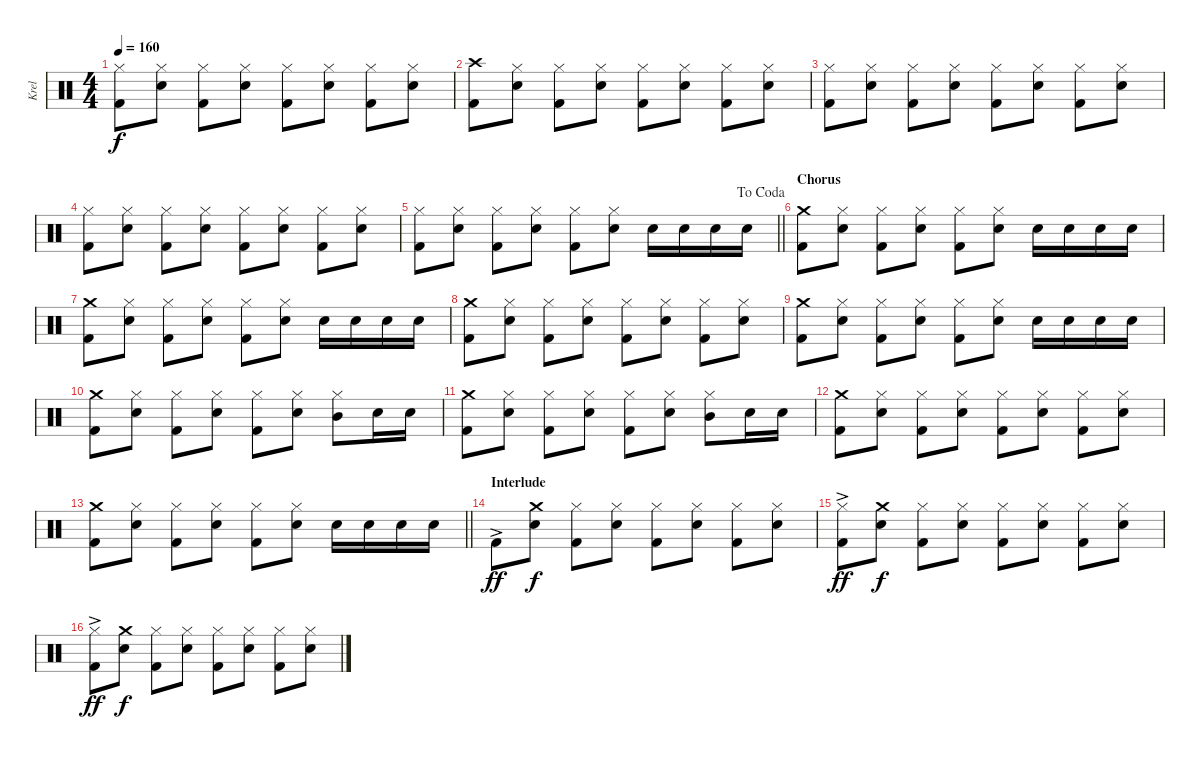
\track ("Krel" "Krel") {instrument percussion}
\staff {score}
\articulation defaults
\ts (4 4)
\tempo 160
\clef neutral
\ks c
("Hi-Hat (closed)" "Kick (hit) 2").8{dy f} ("Hi-Hat (closed)" "Snare (hit) 2").8 ("Hi-Hat (closed)" "Kick (hit) 2").8 ("Hi-Hat (closed)" "Snare (hit) 2").8 ("Hi-Hat (closed)" "Kick (hit) 2").8 ("Hi-Hat (closed)" "Snare (hit) 2").8 ("Hi-Hat (closed)" "Kick (hit) 2").8 ("Hi-Hat (closed)" "Snare (hit) 2").8 |
("Crash high (hit)" "Kick (hit) 2").8 ("Hi-Hat (closed)" "Snare (hit) 2").8 ("Hi-Hat (closed)" "Kick (hit) 2").8 ("Hi-Hat (closed)" "Snare (hit) 2").8 ("Hi-Hat (closed)" "Kick (hit) 2").8 ("Hi-Hat (closed)" "Snare (hit) 2").8 ("Hi-Hat (closed)" "Kick (hit) 2").8 ("Hi-Hat (closed)" "Snare (hit) 2").8 |
("Hi-Hat (closed)" "Kick (hit) 2").8 ("Hi-Hat (closed)" "Snare (hit) 2").8 ("Hi-Hat (closed)" "Kick (hit) 2").8 ("Hi-Hat (closed)" "Snare (hit) 2").8 ("Hi-Hat (closed)" "Kick (hit) 2").8 ("Hi-Hat (closed)" "Snare (hit) 2").8 ("Hi-Hat (closed)" "Kick (hit) 2").8 ("Hi-Hat (closed)" "Snare (hit) 2").8 |
("Hi-Hat (closed)" "Kick (hit) 2").8 ("Hi-Hat (closed)" "Snare (hit) 2").8 ("Hi-Hat (closed)" "Kick (hit) 2").8 ("Hi-Hat (closed)" "Snare (hit) 2").8 ("Hi-Hat (closed)" "Kick (hit) 2").8 ("Hi-Hat (closed)" "Snare (hit) 2").8 ("Hi-Hat (closed)" "Kick (hit) 2").8 ("Hi-Hat (closed)" "Snare (hit) 2").8 |
\jump dacoda
\barLineRight lightlight
("Hi-Hat (closed)" "Kick (hit) 2").8 ("Hi-Hat (closed)" "Snare (hit) 2").8 ("Hi-Hat (closed)" "Kick (hit) 2").8 ("Hi-Hat (closed)" "Snare (hit) 2").8 ("Hi-Hat (closed)" "Kick (hit) 2").8 ("Hi-Hat (closed)" "Snare (hit) 2").8 "Snare (hit) 2".16 "Snare (hit) 2".16 "Snare (hit) 2".16 "Snare (hit) 2".16 |
\section ("" "Chorus")
("Crash medium (hit)" "Kick (hit) 2").8 ("Hi-Hat (closed)" "Snare (hit) 2").8 ("Hi-Hat (closed)" "Kick (hit) 2").8 ("Hi-Hat (closed)" "Snare (hit) 2").8 ("Hi-Hat (closed)" "Kick (hit) 2").8 ("Hi-Hat (closed)" "Snare (hit) 2").8 "Snare (hit) 2".16 "Snare (hit) 2".16 "Snare (hit) 2".16 "Snare (hit) 2".16 |
("Crash medium (hit)" "Kick (hit) 2").8 ("Hi-Hat (closed)" "Snare (hit) 2").8 ("Hi-Hat (closed)" "Kick (hit) 2").8 ("Hi-Hat (closed)" "Snare (hit) 2").8 ("Hi-Hat (closed)" "Kick (hit) 2").8 ("Hi-Hat (closed)" "Snare (hit) 2").8 "Snare (hit) 2".16 "Snare (hit) 2".16 "Snare (hit) 2".16 "Snare (hit) 2".16 |
("Crash medium (hit)" "Kick (hit) 2").8 ("Hi-Hat (closed)" "Snare (hit) 2").8 ("Hi-Hat (closed)" "Kick (hit) 2").8 ("Hi-Hat (closed)" "Snare (hit) 2").8 ("Hi-Hat (closed)" "Kick (hit) 2").8 ("Hi-Hat (closed)" "Snare (hit) 2").8 ("Hi-Hat (closed)" "Kick (hit) 2").8 ("Hi-Hat (closed)" "Snare (hit) 2").8 |
("Crash medium (hit)" "Kick (hit) 2").8 ("Hi-Hat (closed)" "Snare (hit) 2").8 ("Hi-Hat (closed)" "Kick (hit) 2").8 ("Hi-Hat (closed)" "Snare (hit) 2").8 ("Hi-Hat (closed)" "Kick (hit) 2").8 ("Hi-Hat (closed)" "Snare (hit) 2").8 "Snare (hit) 2".16 "Snare (hit) 2".16 "Snare (hit) 2".16 "Snare (hit) 2".16 |
("Crash medium (hit)" "Kick (hit) 2").8 ("Hi-Hat (closed)" "Snare (hit) 2").8 ("Hi-Hat (closed)" "Kick (hit) 2").8 ("Hi-Hat (closed)" "Snare (hit) 2").8 ("Hi-Hat (closed)" "Kick (hit) 2").8 ("Hi-Hat (closed)" "Snare (hit) 2").8 ("Hi-Hat (closed)" "Mid Tom (hit)").8 "Snare (hit) 2".16 "Snare (hit) 2".16 |
("Crash medium (hit)" "Kick (hit) 2").8 ("Hi-Hat (closed)" "Snare (hit) 2").8 ("Hi-Hat (closed)" "Kick (hit) 2").8 ("Hi-Hat (closed)" "Snare (hit) 2").8 ("Hi-Hat (closed)" "Kick (hit) 2").8 ("Hi-Hat (closed)" "Snare (hit) 2").8 ("Hi-Hat (closed)" "Mid Tom (hit)").8 "Snare (hit) 2".16 "Snare (hit) 2".16 |
("Crash medium (hit)" "Kick (hit) 2").8 ("Hi-Hat (closed)" "Snare (hit) 2").8 ("Hi-Hat (closed)" "Kick (hit) 2").8 ("Hi-Hat (closed)" "Snare (hit) 2").8 ("Hi-Hat (closed)" "Kick (hit) 2").8 ("Hi-Hat (closed)" "Snare (hit) 2").8 ("Hi-Hat (closed)" "Kick (hit) 2").8 ("Hi-Hat (closed)" "Snare (hit) 2").8 |
\barLineRight lightlight
("Crash medium (hit)" "Kick (hit) 2").8 ("Hi-Hat (closed)" "Snare (hit) 2").8 ("Hi-Hat (closed)" "Kick (hit) 2").8 ("Hi-Hat (closed)" "Snare (hit) 2").8 ("Hi-Hat (closed)" "Kick (hit) 2").8 ("Hi-Hat (closed)" "Snare (hit) 2").8 "Snare (hit) 2".16 "Snare (hit) 2".16 "Snare (hit) 2".16 "Snare (hit) 2".16 |
\section ("" "Interlude")
"Kick (hit) 2"{ac}.8{dy ff} ("Crash medium (hit)" "Snare (hit) 2").8{dy f} ("Hi-Hat (closed)" "Kick (hit) 2").8 ("Hi-Hat (closed)" "Snare (hit) 2").8 ("Hi-Hat (closed)" "Kick (hit) 2").8 ("Hi-Hat (closed)" "Snare (hit) 2").8 ("Hi-Hat (closed)" "Kick (hit) 2").8 ("Hi-Hat (closed)" "Snare (hit) 2").8 |
("Hi-Hat (closed)" "Kick (hit) 2"{ac}).8{dy ff} ("Crash medium (hit)" "Snare (hit) 2").8{dy f} ("Hi-Hat (closed)" "Kick (hit) 2").8 ("Hi-Hat (closed)" "Snare (hit) 2").8 ("Hi-Hat (closed)" "Kick (hit) 2").8 ("Hi-Hat (closed)" "Snare (hit) 2").8 ("Hi-Hat (closed)" "Kick (hit) 2").8 ("Hi-Hat (closed)" "Snare (hit) 2").8 |
("Hi-Hat (closed)" "Kick (hit) 2"{ac}).8{dy ff} ("Crash medium (hit)" "Snare (hit) 2").8{dy f} ("Hi-Hat (closed)" "Kick (hit) 2").8 ("Hi-Hat (closed)" "Snare (hit) 2").8 ("Hi-Hat (closed)" "Kick (hit) 2").8 ("Hi-Hat (closed)" "Snare (hit) 2").8 ("Hi-Hat (closed)" "Kick (hit) 2").8 ("Hi-Hat (closed)" "Snare (hit) 2").8
